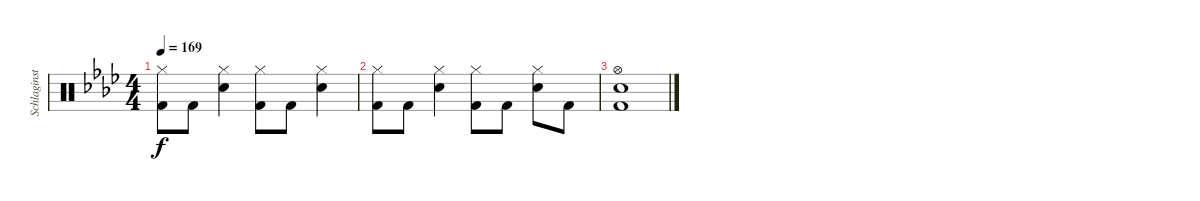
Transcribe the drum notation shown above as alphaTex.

\track ("Schlaginstrumente - Auswahl" "Schlaginst") {instrument percussion}
\staff {score}
\articulation defaults
\ts (4 4)
\tempo 169
\clef neutral
\ks fminor
("Hi-Hat (closed)" "Kick (hit) 2").8{dy f} "Kick (hit) 2".8 ("Hi-Hat (closed)" "Electric Snare (hit)").4 ("Hi-Hat (closed)" "Kick (hit) 2").8 "Kick (hit) 2".8 ("Hi-Hat (closed)" "Electric Snare (hit)").4 |
("Hi-Hat (closed)" "Kick (hit) 2").8 "Kick (hit) 2".8 ("Hi-Hat (closed)" "Electric Snare (hit)").4 ("Hi-Hat (closed)" "Kick (hit) 2").8 "Kick (hit) 2".8 ("Hi-Hat (closed)" "Electric Snare (hit)").8 "Kick (hit) 2".8 |
("Hi-Hat (open)" "Electric Snare (hit)" "Kick (hit) 2").1
